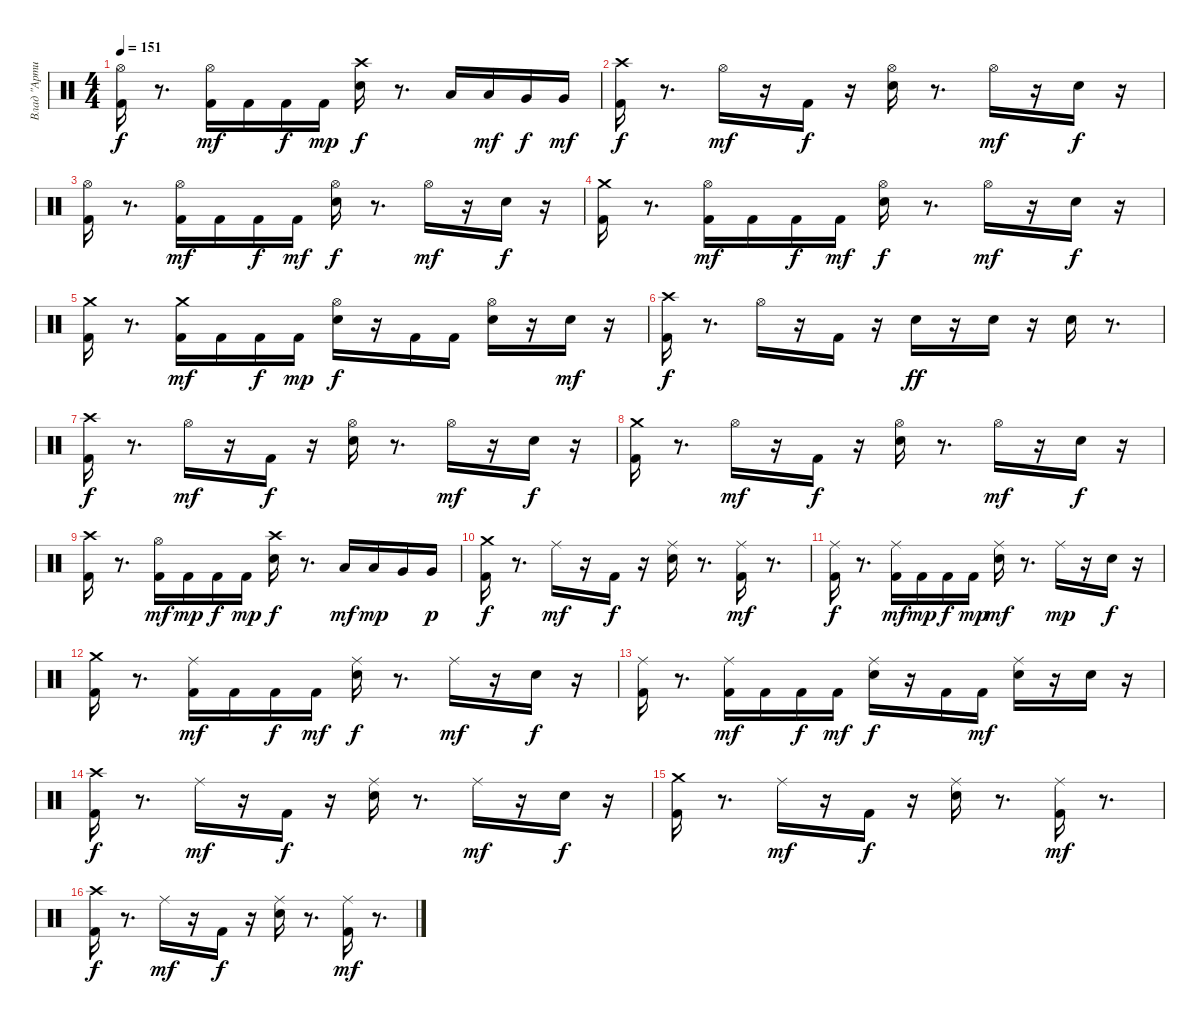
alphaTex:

\track ("Влад \"Артист\"" "Влад \"Арти") {instrument percussion}
\staff {score}
\articulation defaults
\ts (4 4)
\tempo 151
\clef neutral
\ks c
("Hi-Hat (open)" "Kick (hit) 2").16{dy f} r.8{d} ("Kick (hit) 2" "Hi-Hat (open)").16{dy mf} "Kick (hit) 2".16 "Kick (hit) 2".16{dy f} "Kick (hit) 2".16{dy mp} ("Snare (hit) 2" "Crash high (hit)").16{dy f} r.8{d} "Low Tom (hit)".16 "Low Tom (hit)".16{dy mf} "Very Low Tom (hit)".16{dy f} "Very Low Tom (hit)".16{dy mf} |
("Crash high (hit)" "Kick (hit) 2").16{dy f} r.8{d} "Hi-Hat (open)".16{dy mf} r.16 "Kick (hit) 2".16{dy f} r.16 ("Snare (hit) 2" "Hi-Hat (open)").16 r.8{d} "Hi-Hat (open)".16{dy mf} r.16 "Snare (hit) 2".16{dy f} r.16 |
("Kick (hit) 2" "Hi-Hat (open)").16 r.8{d} ("Hi-Hat (open)" "Kick (hit) 2").16{dy mf} "Kick (hit) 2".16 "Kick (hit) 2".16{dy f} "Kick (hit) 2".16{dy mf} ("Hi-Hat (open)" "Snare (hit) 2").16{dy f} r.8{d} "Hi-Hat (open)".16{dy mf} r.16 "Snare (hit) 2".16{dy f} r.16 |
("Crash medium (hit)" "Kick (hit) 2").16 r.8{d} ("Hi-Hat (open)" "Kick (hit) 2").16{dy mf} "Kick (hit) 2".16 "Kick (hit) 2".16{dy f} "Kick (hit) 2".16{dy mf} ("Hi-Hat (open)" "Snare (hit) 2").16{dy f} r.8{d} "Hi-Hat (open)".16{dy mf} r.16 "Snare (hit) 2".16{dy f} r.16 |
("Kick (hit) 2" "Crash medium (hit)").16 r.8{d} ("Crash medium (hit)" "Kick (hit) 2").16{dy mf} "Kick (hit) 2".16 "Kick (hit) 2".16{dy f} "Kick (hit) 2".16{dy mp} ("Hi-Hat (open)" "Snare (hit) 2").16{dy f} r.16 "Kick (hit) 2".16 "Kick (hit) 2".16 ("Hi-Hat (open)" "Snare (hit) 2").16 r.16 "Snare (hit) 2".16{dy mf} r.16 |
("Kick (hit) 2" "Crash high (hit)").16{dy f} r.8{d} "Hi-Hat (open)".16 r.16 "Kick (hit) 2".16 r.16 "Snare (hit) 2".16{dy ff} r.16 "Snare (hit) 2".16 r.16 "Snare (hit) 2".16 r.8{d} |
("Crash high (hit)" "Kick (hit) 2").16{dy f} r.8{d} "Hi-Hat (open)".16{dy mf} r.16 "Kick (hit) 2".16{dy f} r.16 ("Snare (hit) 2" "Hi-Hat (open)").16 r.8{d} "Hi-Hat (open)".16{dy mf} r.16 "Snare (hit) 2".16{dy f} r.16 |
("Crash medium (hit)" "Kick (hit) 2").16 r.8{d} "Hi-Hat (open)".16{dy mf} r.16 "Kick (hit) 2".16{dy f} r.16 ("Hi-Hat (open)" "Snare (hit) 2").16 r.8{d} "Hi-Hat (open)".16{dy mf} r.16 "Snare (hit) 2".16{dy f} r.16 |
("Crash high (hit)" "Kick (hit) 2").16 r.8{d} ("Kick (hit) 2" "Hi-Hat (open)").16{dy mf} "Kick (hit) 2".16{dy mp} "Kick (hit) 2".16{dy f} "Kick (hit) 2".16{dy mp} ("Snare (hit) 2" "Crash high (hit)").16{dy f} r.8{d} "Low Tom (hit)".16{dy mf} "Low Tom (hit)".16{dy mp} "Very Low Tom (hit)".16 "Very Low Tom (hit)".16{dy p} |
("Kick (hit) 2" "Crash medium (hit)").16{dy f} r.8{d} "Ride (middle)".16{dy mf} r.16 "Kick (hit) 2".16{dy f} r.16 ("Snare (hit) 2" "Ride (middle)").16 r.8{d} ("Ride (middle)" "Kick (hit) 2").16{dy mf} r.8{d} |
("Kick (hit) 2" "Ride (middle)").16{dy f} r.8{d} ("Ride (middle)" "Kick (hit) 2").16{dy mf} "Kick (hit) 2".16{dy mp} "Kick (hit) 2".16{dy f} "Kick (hit) 2".16{dy mp} ("Ride (middle)" "Snare (hit) 2").16{dy mf} r.8{d} "Ride (middle)".16{dy mp} r.16 "Snare (hit) 2".16{dy f} r.16 |
("Crash medium (hit)" "Kick (hit) 2").16 r.8{d} ("Ride (middle)" "Kick (hit) 2").16{dy mf} "Kick (hit) 2".16 "Kick (hit) 2".16{dy f} "Kick (hit) 2".16{dy mf} ("Ride (middle)" "Snare (hit) 2").16{dy f} r.8{d} "Ride (middle)".16{dy mf} r.16 "Snare (hit) 2".16{dy f} r.16 |
("Kick (hit) 2" "Ride (middle)").16 r.8{d} ("Ride (middle)" "Kick (hit) 2").16{dy mf} "Kick (hit) 2".16 "Kick (hit) 2".16{dy f} "Kick (hit) 2".16{dy mf} ("Ride (middle)" "Snare (hit) 2").16{dy f} r.16 "Kick (hit) 2".16 "Kick (hit) 2".16{dy mf} ("Ride (middle)" "Snare (hit) 2").16 r.16 "Snare (hit) 2".16 r.16 |
("Kick (hit) 2" "Crash high (hit)").16{dy f} r.8{d} "Ride (middle)".16{dy mf} r.16 "Kick (hit) 2".16{dy f} r.16 ("Snare (hit) 2" "Ride (middle)").16 r.8{d} "Ride (middle)".16{dy mf} r.16 "Snare (hit) 2".16{dy f} r.16 |
("Kick (hit) 2" "Crash medium (hit)").16 r.8{d} "Ride (middle)".16{dy mf} r.16 "Kick (hit) 2".16{dy f} r.16 ("Snare (hit) 2" "Ride (middle)").16 r.8{d} ("Ride (middle)" "Kick (hit) 2").16{dy mf} r.8{d} |
("Crash high (hit)" "Kick (hit) 2").16{dy f} r.8{d} "Ride (middle)".16{dy mf} r.16 "Kick (hit) 2".16{dy f} r.16 ("Ride (middle)" "Snare (hit) 2").16 r.8{d} ("Ride (middle)" "Kick (hit) 2").16{dy mf} r.8{d}
